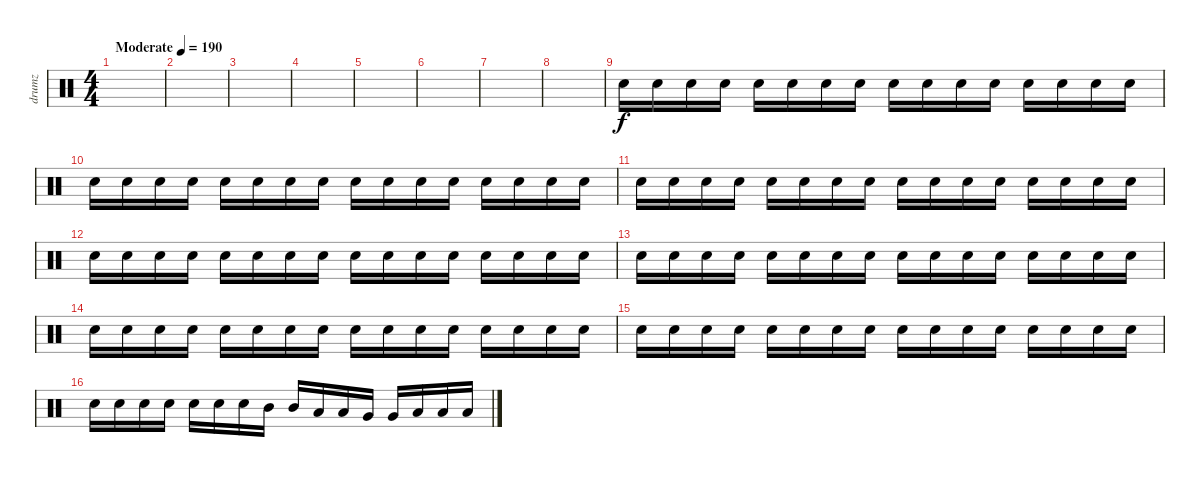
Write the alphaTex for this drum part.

\track ("drumz" "drumz") {instrument percussion}
\staff {score}
\articulation defaults
\ts (4 4)
\tempo (190 "Moderate")
\clef neutral
\ks c
|
|
|
|
|
|
|
|
"Electric Snare (hit)".16 "Electric Snare (hit)".16 "Electric Snare (hit)".16 "Electric Snare (hit)".16 "Electric Snare (hit)".16 "Electric Snare (hit)".16 "Electric Snare (hit)".16 "Electric Snare (hit)".16 "Electric Snare (hit)".16 "Electric Snare (hit)".16 "Electric Snare (hit)".16 "Electric Snare (hit)".16 "Electric Snare (hit)".16 "Electric Snare (hit)".16 "Electric Snare (hit)".16 "Electric Snare (hit)".16 |
"Electric Snare (hit)".16 "Electric Snare (hit)".16 "Electric Snare (hit)".16 "Electric Snare (hit)".16 "Electric Snare (hit)".16 "Electric Snare (hit)".16 "Electric Snare (hit)".16 "Electric Snare (hit)".16 "Electric Snare (hit)".16 "Electric Snare (hit)".16 "Electric Snare (hit)".16 "Electric Snare (hit)".16 "Electric Snare (hit)".16 "Electric Snare (hit)".16 "Electric Snare (hit)".16 "Electric Snare (hit)".16 |
"Electric Snare (hit)".16 "Electric Snare (hit)".16 "Electric Snare (hit)".16 "Electric Snare (hit)".16 "Electric Snare (hit)".16 "Electric Snare (hit)".16 "Electric Snare (hit)".16 "Electric Snare (hit)".16 "Electric Snare (hit)".16 "Electric Snare (hit)".16 "Electric Snare (hit)".16 "Electric Snare (hit)".16 "Electric Snare (hit)".16 "Electric Snare (hit)".16 "Electric Snare (hit)".16 "Electric Snare (hit)".16 |
"Electric Snare (hit)".16 "Electric Snare (hit)".16 "Electric Snare (hit)".16 "Electric Snare (hit)".16 "Electric Snare (hit)".16 "Electric Snare (hit)".16 "Electric Snare (hit)".16 "Electric Snare (hit)".16 "Electric Snare (hit)".16 "Electric Snare (hit)".16 "Electric Snare (hit)".16 "Electric Snare (hit)".16 "Electric Snare (hit)".16 "Electric Snare (hit)".16 "Electric Snare (hit)".16 "Electric Snare (hit)".16 |
"Electric Snare (hit)".16 "Electric Snare (hit)".16 "Electric Snare (hit)".16 "Electric Snare (hit)".16 "Electric Snare (hit)".16 "Electric Snare (hit)".16 "Electric Snare (hit)".16 "Electric Snare (hit)".16 "Electric Snare (hit)".16 "Electric Snare (hit)".16 "Electric Snare (hit)".16 "Electric Snare (hit)".16 "Electric Snare (hit)".16 "Electric Snare (hit)".16 "Electric Snare (hit)".16 "Electric Snare (hit)".16 |
"Electric Snare (hit)".16 "Electric Snare (hit)".16 "Electric Snare (hit)".16 "Electric Snare (hit)".16 "Electric Snare (hit)".16 "Electric Snare (hit)".16 "Electric Snare (hit)".16 "Electric Snare (hit)".16 "Electric Snare (hit)".16 "Electric Snare (hit)".16 "Electric Snare (hit)".16 "Electric Snare (hit)".16 "Electric Snare (hit)".16 "Electric Snare (hit)".16 "Electric Snare (hit)".16 "Electric Snare (hit)".16 |
"Electric Snare (hit)".16 "Electric Snare (hit)".16 "Electric Snare (hit)".16 "Electric Snare (hit)".16 "Electric Snare (hit)".16 "Electric Snare (hit)".16 "Electric Snare (hit)".16 "Electric Snare (hit)".16 "Electric Snare (hit)".16 "Electric Snare (hit)".16 "Electric Snare (hit)".16 "Electric Snare (hit)".16 "Electric Snare (hit)".16 "Electric Snare (hit)".16 "Electric Snare (hit)".16 "Electric Snare (hit)".16 |
"Electric Snare (hit)".16 "Electric Snare (hit)".16 "Electric Snare (hit)".16 "Electric Snare (hit)".16 "Electric Snare (hit)".16 "Electric Snare (hit)".16 "Electric Snare (hit)".16 "Mid Tom (hit)".16 "Mid Tom (hit)".16 "Low Tom (hit)".16 "Low Tom (hit)".16 "Very Low Tom (hit)".16 "Very Low Tom (hit)".16 "Low Floor Tom (hit)".16 "Low Floor Tom (hit)".16 "Low Floor Tom (hit)".16
